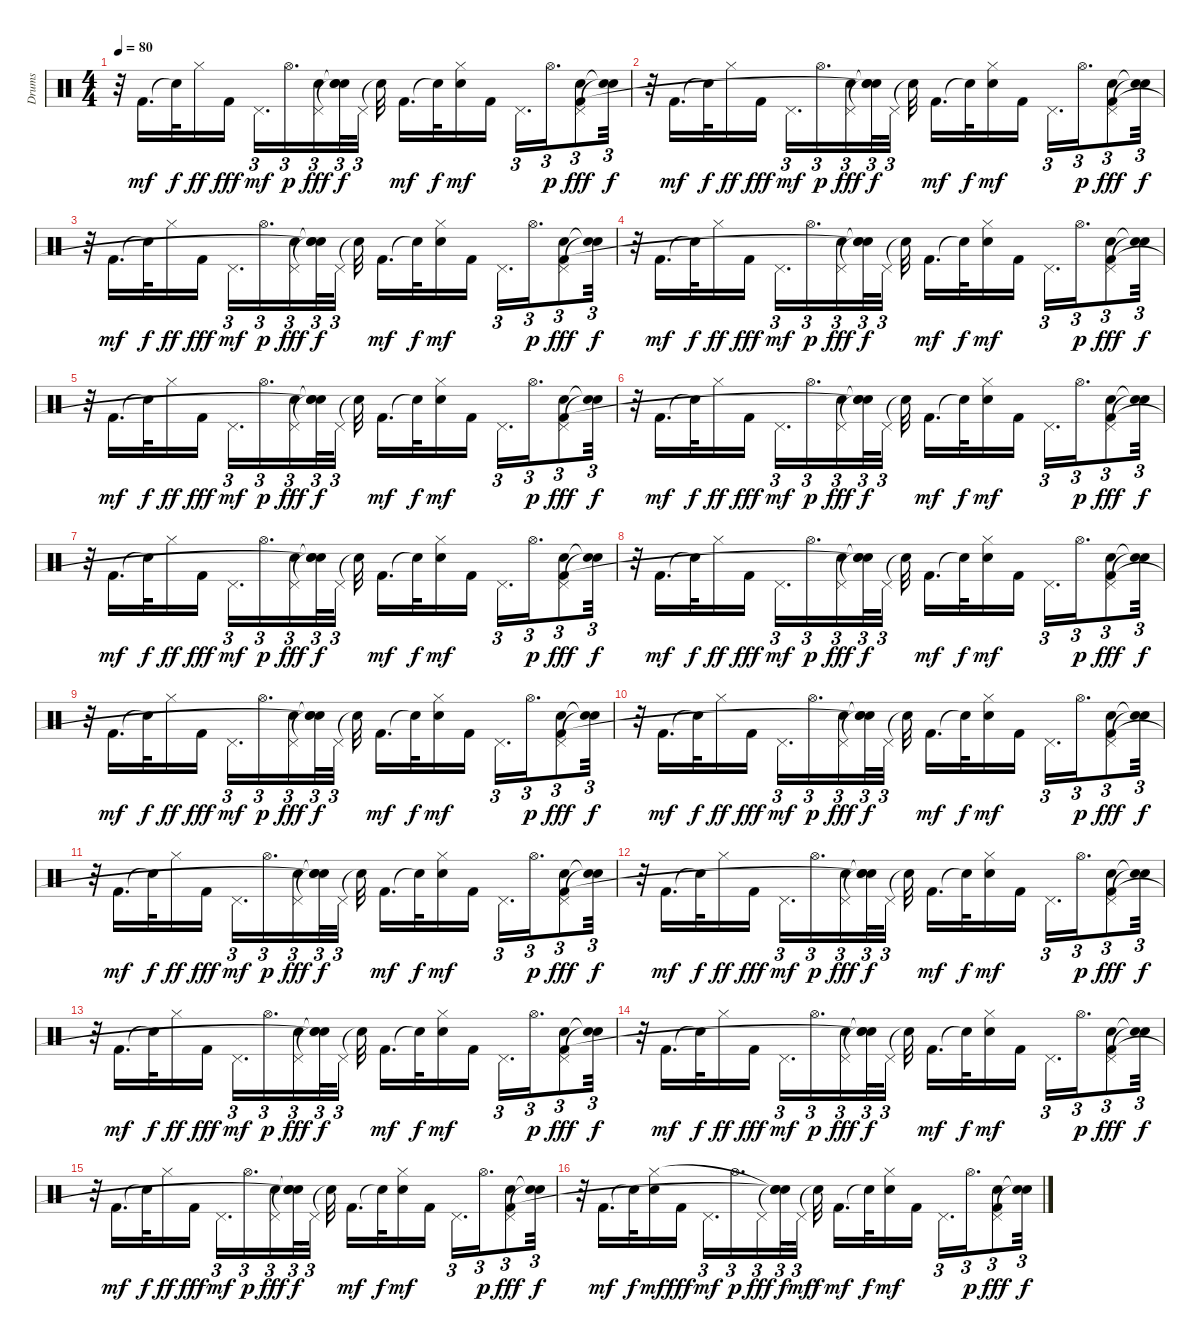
\track ("Drums" "Drums") {instrument percussion}
\staff {score}
\articulation defaults
\ts (4 4)
\tempo 80
\clef neutral
\ks c
r.32{dy f} "Kick (hit) 2".16{d dy mf} "Snare (hit)"{t}.32{dy f} "Hi-Hat (closed)".16{dy ff} "Kick (hit) 2".16{dy fff} "Pedal Hi-Hat (hit)".16{d tu (3 2) dy mf} "Hi-Hat (open)".16{d tu (3 2) dy p} ("Electric Snare (hit)" "Pedal Hi-Hat (hit)").16{tu (3 2) dy fff} ("Snare (hit)"{t} "Snare (hit)"{t} "Snare (hit)"{t}).32{tu (3 2) dy f beam splitsecondary} "Pedal Hi-Hat (hit)".32{tu (3 2)} "Snare (hit)"{t}.32 "Kick (hit) 2".16{d dy mf} "Snare (hit)"{t}.32{dy f} ("Electric Snare (hit)" "Hi-Hat (closed)").16{dy mf} "Kick (hit) 2".16 "Pedal Hi-Hat (hit)".16{d tu (3 2)} "Hi-Hat (open)".16{d tu (3 2) dy p} ("Electric Snare (hit)" "Pedal Hi-Hat (hit)" "Kick (hit) 2").8{tu (3 2) dy fff} ("Snare (hit)"{t} "Snare (hit)"{t}).32{tu (3 2) dy f} |
r.32 "Kick (hit) 2".16{d dy mf} "Snare (hit)"{t}.32{dy f} "Hi-Hat (closed)".16{dy ff} "Kick (hit) 2".16{dy fff} "Pedal Hi-Hat (hit)".16{d tu (3 2) dy mf} "Hi-Hat (open)".16{d tu (3 2) dy p} ("Electric Snare (hit)" "Pedal Hi-Hat (hit)").16{tu (3 2) dy fff} ("Snare (hit)"{t} "Snare (hit)"{t} "Snare (hit)"{t}).32{tu (3 2) dy f beam splitsecondary} "Pedal Hi-Hat (hit)".32{tu (3 2)} "Snare (hit)"{t}.32 "Kick (hit) 2".16{d dy mf} "Snare (hit)"{t}.32{dy f} ("Electric Snare (hit)" "Hi-Hat (closed)").16{dy mf} "Kick (hit) 2".16 "Pedal Hi-Hat (hit)".16{d tu (3 2)} "Hi-Hat (open)".16{d tu (3 2) dy p} ("Electric Snare (hit)" "Pedal Hi-Hat (hit)" "Kick (hit) 2").8{tu (3 2) dy fff} ("Snare (hit)"{t} "Snare (hit)"{t}).32{tu (3 2) dy f} |
r.32 "Kick (hit) 2".16{d dy mf} "Snare (hit)"{t}.32{dy f} "Hi-Hat (closed)".16{dy ff} "Kick (hit) 2".16{dy fff} "Pedal Hi-Hat (hit)".16{d tu (3 2) dy mf} "Hi-Hat (open)".16{d tu (3 2) dy p} ("Electric Snare (hit)" "Pedal Hi-Hat (hit)").16{tu (3 2) dy fff} ("Snare (hit)"{t} "Snare (hit)"{t} "Snare (hit)"{t}).32{tu (3 2) dy f beam splitsecondary} "Pedal Hi-Hat (hit)".32{tu (3 2)} "Snare (hit)"{t}.32 "Kick (hit) 2".16{d dy mf} "Snare (hit)"{t}.32{dy f} ("Electric Snare (hit)" "Hi-Hat (closed)").16{dy mf} "Kick (hit) 2".16 "Pedal Hi-Hat (hit)".16{d tu (3 2)} "Hi-Hat (open)".16{d tu (3 2) dy p} ("Electric Snare (hit)" "Pedal Hi-Hat (hit)" "Kick (hit) 2").8{tu (3 2) dy fff} ("Snare (hit)"{t} "Snare (hit)"{t}).32{tu (3 2) dy f} |
r.32 "Kick (hit) 2".16{d dy mf} "Snare (hit)"{t}.32{dy f} "Hi-Hat (closed)".16{dy ff} "Kick (hit) 2".16{dy fff} "Pedal Hi-Hat (hit)".16{d tu (3 2) dy mf} "Hi-Hat (open)".16{d tu (3 2) dy p} ("Electric Snare (hit)" "Pedal Hi-Hat (hit)").16{tu (3 2) dy fff} ("Snare (hit)"{t} "Snare (hit)"{t} "Snare (hit)"{t}).32{tu (3 2) dy f beam splitsecondary} "Pedal Hi-Hat (hit)".32{tu (3 2)} "Snare (hit)"{t}.32 "Kick (hit) 2".16{d dy mf} "Snare (hit)"{t}.32{dy f} ("Electric Snare (hit)" "Hi-Hat (closed)").16{dy mf} "Kick (hit) 2".16 "Pedal Hi-Hat (hit)".16{d tu (3 2)} "Hi-Hat (open)".16{d tu (3 2) dy p} ("Electric Snare (hit)" "Pedal Hi-Hat (hit)" "Kick (hit) 2").8{tu (3 2) dy fff} ("Snare (hit)"{t} "Snare (hit)"{t}).32{tu (3 2) dy f} |
r.32 "Kick (hit) 2".16{d dy mf} "Snare (hit)"{t}.32{dy f} "Hi-Hat (closed)".16{dy ff} "Kick (hit) 2".16{dy fff} "Pedal Hi-Hat (hit)".16{d tu (3 2) dy mf} "Hi-Hat (open)".16{d tu (3 2) dy p} ("Electric Snare (hit)" "Pedal Hi-Hat (hit)").16{tu (3 2) dy fff} ("Snare (hit)"{t} "Snare (hit)"{t} "Snare (hit)"{t}).32{tu (3 2) dy f beam splitsecondary} "Pedal Hi-Hat (hit)".32{tu (3 2)} "Snare (hit)"{t}.32 "Kick (hit) 2".16{d dy mf} "Snare (hit)"{t}.32{dy f} ("Electric Snare (hit)" "Hi-Hat (closed)").16{dy mf} "Kick (hit) 2".16 "Pedal Hi-Hat (hit)".16{d tu (3 2)} "Hi-Hat (open)".16{d tu (3 2) dy p} ("Electric Snare (hit)" "Pedal Hi-Hat (hit)" "Kick (hit) 2").8{tu (3 2) dy fff} ("Snare (hit)"{t} "Snare (hit)"{t}).32{tu (3 2) dy f} |
r.32 "Kick (hit) 2".16{d dy mf} "Snare (hit)"{t}.32{dy f} "Hi-Hat (closed)".16{dy ff} "Kick (hit) 2".16{dy fff} "Pedal Hi-Hat (hit)".16{d tu (3 2) dy mf} "Hi-Hat (open)".16{d tu (3 2) dy p} ("Electric Snare (hit)" "Pedal Hi-Hat (hit)").16{tu (3 2) dy fff} ("Snare (hit)"{t} "Snare (hit)"{t} "Snare (hit)"{t}).32{tu (3 2) dy f beam splitsecondary} "Pedal Hi-Hat (hit)".32{tu (3 2)} "Snare (hit)"{t}.32 "Kick (hit) 2".16{d dy mf} "Snare (hit)"{t}.32{dy f} ("Electric Snare (hit)" "Hi-Hat (closed)").16{dy mf} "Kick (hit) 2".16 "Pedal Hi-Hat (hit)".16{d tu (3 2)} "Hi-Hat (open)".16{d tu (3 2) dy p} ("Electric Snare (hit)" "Pedal Hi-Hat (hit)" "Kick (hit) 2").8{tu (3 2) dy fff} ("Snare (hit)"{t} "Snare (hit)"{t}).32{tu (3 2) dy f} |
r.32 "Kick (hit) 2".16{d dy mf} "Snare (hit)"{t}.32{dy f} "Hi-Hat (closed)".16{dy ff} "Kick (hit) 2".16{dy fff} "Pedal Hi-Hat (hit)".16{d tu (3 2) dy mf} "Hi-Hat (open)".16{d tu (3 2) dy p} ("Electric Snare (hit)" "Pedal Hi-Hat (hit)").16{tu (3 2) dy fff} ("Snare (hit)"{t} "Snare (hit)"{t} "Snare (hit)"{t}).32{tu (3 2) dy f beam splitsecondary} "Pedal Hi-Hat (hit)".32{tu (3 2)} "Snare (hit)"{t}.32 "Kick (hit) 2".16{d dy mf} "Snare (hit)"{t}.32{dy f} ("Electric Snare (hit)" "Hi-Hat (closed)").16{dy mf} "Kick (hit) 2".16 "Pedal Hi-Hat (hit)".16{d tu (3 2)} "Hi-Hat (open)".16{d tu (3 2) dy p} ("Electric Snare (hit)" "Pedal Hi-Hat (hit)" "Kick (hit) 2").8{tu (3 2) dy fff} ("Snare (hit)"{t} "Snare (hit)"{t}).32{tu (3 2) dy f} |
r.32 "Kick (hit) 2".16{d dy mf} "Snare (hit)"{t}.32{dy f} "Hi-Hat (closed)".16{dy ff} "Kick (hit) 2".16{dy fff} "Pedal Hi-Hat (hit)".16{d tu (3 2) dy mf} "Hi-Hat (open)".16{d tu (3 2) dy p} ("Electric Snare (hit)" "Pedal Hi-Hat (hit)").16{tu (3 2) dy fff} ("Snare (hit)"{t} "Snare (hit)"{t} "Snare (hit)"{t}).32{tu (3 2) dy f beam splitsecondary} "Pedal Hi-Hat (hit)".32{tu (3 2)} "Snare (hit)"{t}.32 "Kick (hit) 2".16{d dy mf} "Snare (hit)"{t}.32{dy f} ("Electric Snare (hit)" "Hi-Hat (closed)").16{dy mf} "Kick (hit) 2".16 "Pedal Hi-Hat (hit)".16{d tu (3 2)} "Hi-Hat (open)".16{d tu (3 2) dy p} ("Electric Snare (hit)" "Pedal Hi-Hat (hit)" "Kick (hit) 2").8{tu (3 2) dy fff} ("Snare (hit)"{t} "Snare (hit)"{t}).32{tu (3 2) dy f} |
r.32 "Kick (hit) 2".16{d dy mf} "Snare (hit)"{t}.32{dy f} "Hi-Hat (closed)".16{dy ff} "Kick (hit) 2".16{dy fff} "Pedal Hi-Hat (hit)".16{d tu (3 2) dy mf} "Hi-Hat (open)".16{d tu (3 2) dy p} ("Electric Snare (hit)" "Pedal Hi-Hat (hit)").16{tu (3 2) dy fff} ("Snare (hit)"{t} "Snare (hit)"{t} "Snare (hit)"{t}).32{tu (3 2) dy f beam splitsecondary} "Pedal Hi-Hat (hit)".32{tu (3 2)} "Snare (hit)"{t}.32 "Kick (hit) 2".16{d dy mf} "Snare (hit)"{t}.32{dy f} ("Electric Snare (hit)" "Hi-Hat (closed)").16{dy mf} "Kick (hit) 2".16 "Pedal Hi-Hat (hit)".16{d tu (3 2)} "Hi-Hat (open)".16{d tu (3 2) dy p} ("Electric Snare (hit)" "Pedal Hi-Hat (hit)" "Kick (hit) 2").8{tu (3 2) dy fff} ("Snare (hit)"{t} "Snare (hit)"{t}).32{tu (3 2) dy f} |
r.32 "Kick (hit) 2".16{d dy mf} "Snare (hit)"{t}.32{dy f} "Hi-Hat (closed)".16{dy ff} "Kick (hit) 2".16{dy fff} "Pedal Hi-Hat (hit)".16{d tu (3 2) dy mf} "Hi-Hat (open)".16{d tu (3 2) dy p} ("Electric Snare (hit)" "Pedal Hi-Hat (hit)").16{tu (3 2) dy fff} ("Snare (hit)"{t} "Snare (hit)"{t} "Snare (hit)"{t}).32{tu (3 2) dy f beam splitsecondary} "Pedal Hi-Hat (hit)".32{tu (3 2)} "Snare (hit)"{t}.32 "Kick (hit) 2".16{d dy mf} "Snare (hit)"{t}.32{dy f} ("Electric Snare (hit)" "Hi-Hat (closed)").16{dy mf} "Kick (hit) 2".16 "Pedal Hi-Hat (hit)".16{d tu (3 2)} "Hi-Hat (open)".16{d tu (3 2) dy p} ("Electric Snare (hit)" "Pedal Hi-Hat (hit)" "Kick (hit) 2").8{tu (3 2) dy fff} ("Snare (hit)"{t} "Snare (hit)"{t}).32{tu (3 2) dy f} |
r.32 "Kick (hit) 2".16{d dy mf} "Snare (hit)"{t}.32{dy f} "Hi-Hat (closed)".16{dy ff} "Kick (hit) 2".16{dy fff} "Pedal Hi-Hat (hit)".16{d tu (3 2) dy mf} "Hi-Hat (open)".16{d tu (3 2) dy p} ("Electric Snare (hit)" "Pedal Hi-Hat (hit)").16{tu (3 2) dy fff} ("Snare (hit)"{t} "Snare (hit)"{t} "Snare (hit)"{t}).32{tu (3 2) dy f beam splitsecondary} "Pedal Hi-Hat (hit)".32{tu (3 2)} "Snare (hit)"{t}.32 "Kick (hit) 2".16{d dy mf} "Snare (hit)"{t}.32{dy f} ("Electric Snare (hit)" "Hi-Hat (closed)").16{dy mf} "Kick (hit) 2".16 "Pedal Hi-Hat (hit)".16{d tu (3 2)} "Hi-Hat (open)".16{d tu (3 2) dy p} ("Electric Snare (hit)" "Pedal Hi-Hat (hit)" "Kick (hit) 2").8{tu (3 2) dy fff} ("Snare (hit)"{t} "Snare (hit)"{t}).32{tu (3 2) dy f} |
r.32 "Kick (hit) 2".16{d dy mf} "Snare (hit)"{t}.32{dy f} "Hi-Hat (closed)".16{dy ff} "Kick (hit) 2".16{dy fff} "Pedal Hi-Hat (hit)".16{d tu (3 2) dy mf} "Hi-Hat (open)".16{d tu (3 2) dy p} ("Electric Snare (hit)" "Pedal Hi-Hat (hit)").16{tu (3 2) dy fff} ("Snare (hit)"{t} "Snare (hit)"{t} "Snare (hit)"{t}).32{tu (3 2) dy f beam splitsecondary} "Pedal Hi-Hat (hit)".32{tu (3 2)} "Snare (hit)"{t}.32 "Kick (hit) 2".16{d dy mf} "Snare (hit)"{t}.32{dy f} ("Electric Snare (hit)" "Hi-Hat (closed)").16{dy mf} "Kick (hit) 2".16 "Pedal Hi-Hat (hit)".16{d tu (3 2)} "Hi-Hat (open)".16{d tu (3 2) dy p} ("Electric Snare (hit)" "Pedal Hi-Hat (hit)" "Kick (hit) 2").8{tu (3 2) dy fff} ("Snare (hit)"{t} "Snare (hit)"{t}).32{tu (3 2) dy f} |
r.32 "Kick (hit) 2".16{d dy mf} "Snare (hit)"{t}.32{dy f} "Hi-Hat (closed)".16{dy ff} "Kick (hit) 2".16{dy fff} "Pedal Hi-Hat (hit)".16{d tu (3 2) dy mf} "Hi-Hat (open)".16{d tu (3 2) dy p} ("Electric Snare (hit)" "Pedal Hi-Hat (hit)").16{tu (3 2) dy fff} ("Snare (hit)"{t} "Snare (hit)"{t} "Snare (hit)"{t}).32{tu (3 2) dy f beam splitsecondary} "Pedal Hi-Hat (hit)".32{tu (3 2)} "Snare (hit)"{t}.32 "Kick (hit) 2".16{d dy mf} "Snare (hit)"{t}.32{dy f} ("Electric Snare (hit)" "Hi-Hat (closed)").16{dy mf} "Kick (hit) 2".16 "Pedal Hi-Hat (hit)".16{d tu (3 2)} "Hi-Hat (open)".16{d tu (3 2) dy p} ("Electric Snare (hit)" "Pedal Hi-Hat (hit)" "Kick (hit) 2").8{tu (3 2) dy fff} ("Snare (hit)"{t} "Snare (hit)"{t}).32{tu (3 2) dy f} |
r.32 "Kick (hit) 2".16{d dy mf} "Snare (hit)"{t}.32{dy f} "Hi-Hat (closed)".16{dy ff} "Kick (hit) 2".16{dy fff} "Pedal Hi-Hat (hit)".16{d tu (3 2) dy mf} "Hi-Hat (open)".16{d tu (3 2) dy p} ("Electric Snare (hit)" "Pedal Hi-Hat (hit)").16{tu (3 2) dy fff} ("Snare (hit)"{t} "Snare (hit)"{t} "Snare (hit)"{t}).32{tu (3 2) dy f beam splitsecondary} "Pedal Hi-Hat (hit)".32{tu (3 2)} "Snare (hit)"{t}.32 "Kick (hit) 2".16{d dy mf} "Snare (hit)"{t}.32{dy f} ("Electric Snare (hit)" "Hi-Hat (closed)").16{dy mf} "Kick (hit) 2".16 "Pedal Hi-Hat (hit)".16{d tu (3 2)} "Hi-Hat (open)".16{d tu (3 2) dy p} ("Electric Snare (hit)" "Pedal Hi-Hat (hit)" "Kick (hit) 2").8{tu (3 2) dy fff} ("Snare (hit)"{t} "Snare (hit)"{t}).32{tu (3 2) dy f} |
r.32 "Kick (hit) 2".16{d dy mf} "Snare (hit)"{t}.32{dy f} "Hi-Hat (closed)".16{dy ff} "Kick (hit) 2".16{dy fff} "Pedal Hi-Hat (hit)".16{d tu (3 2) dy mf} "Hi-Hat (open)".16{d tu (3 2) dy p} ("Electric Snare (hit)" "Pedal Hi-Hat (hit)").16{tu (3 2) dy fff} ("Snare (hit)"{t} "Snare (hit)"{t} "Snare (hit)"{t}).32{tu (3 2) dy f beam splitsecondary} "Pedal Hi-Hat (hit)".32{tu (3 2)} "Snare (hit)"{t}.32 "Kick (hit) 2".16{d dy mf} "Snare (hit)"{t}.32{dy f} ("Electric Snare (hit)" "Hi-Hat (closed)").16{dy mf} "Kick (hit) 2".16 "Pedal Hi-Hat (hit)".16{d tu (3 2)} "Hi-Hat (open)".16{d tu (3 2) dy p} ("Electric Snare (hit)" "Pedal Hi-Hat (hit)" "Kick (hit) 2").8{tu (3 2) dy fff} ("Snare (hit)"{t} "Snare (hit)"{t}).32{tu (3 2) dy f} |
r.32 "Kick (hit) 2".16{d dy mf} "Snare (hit)"{t}.32{dy f} ("Electric Snare (hit)" "Hi-Hat (closed)").16{dy mf} "Kick (hit) 2".16{dy fff} "Pedal Hi-Hat (hit)".16{d tu (3 2) dy mf} "Hi-Hat (open)".16{d tu (3 2) dy p} "Pedal Hi-Hat (hit)".16{tu (3 2) dy fff} ("Snare (hit)"{t} "Snare (hit)"{t} "Snare (hit)"{t}).32{tu (3 2) dy f beam splitsecondary} "Pedal Hi-Hat (hit)".32{tu (3 2) dy mf} "Snare (hit)"{t}.32{dy f} "Kick (hit) 2".16{d dy mf} "Snare (hit)"{t}.32{dy f} ("Electric Snare (hit)" "Hi-Hat (closed)").16{dy mf} "Kick (hit) 2".16 "Pedal Hi-Hat (hit)".16{d tu (3 2)} "Hi-Hat (open)".16{d tu (3 2) dy p} ("Electric Snare (hit)" "Pedal Hi-Hat (hit)" "Kick (hit) 2").8{tu (3 2) dy fff} ("Snare (hit)"{t} "Snare (hit)"{t}).32{tu (3 2) dy f}
